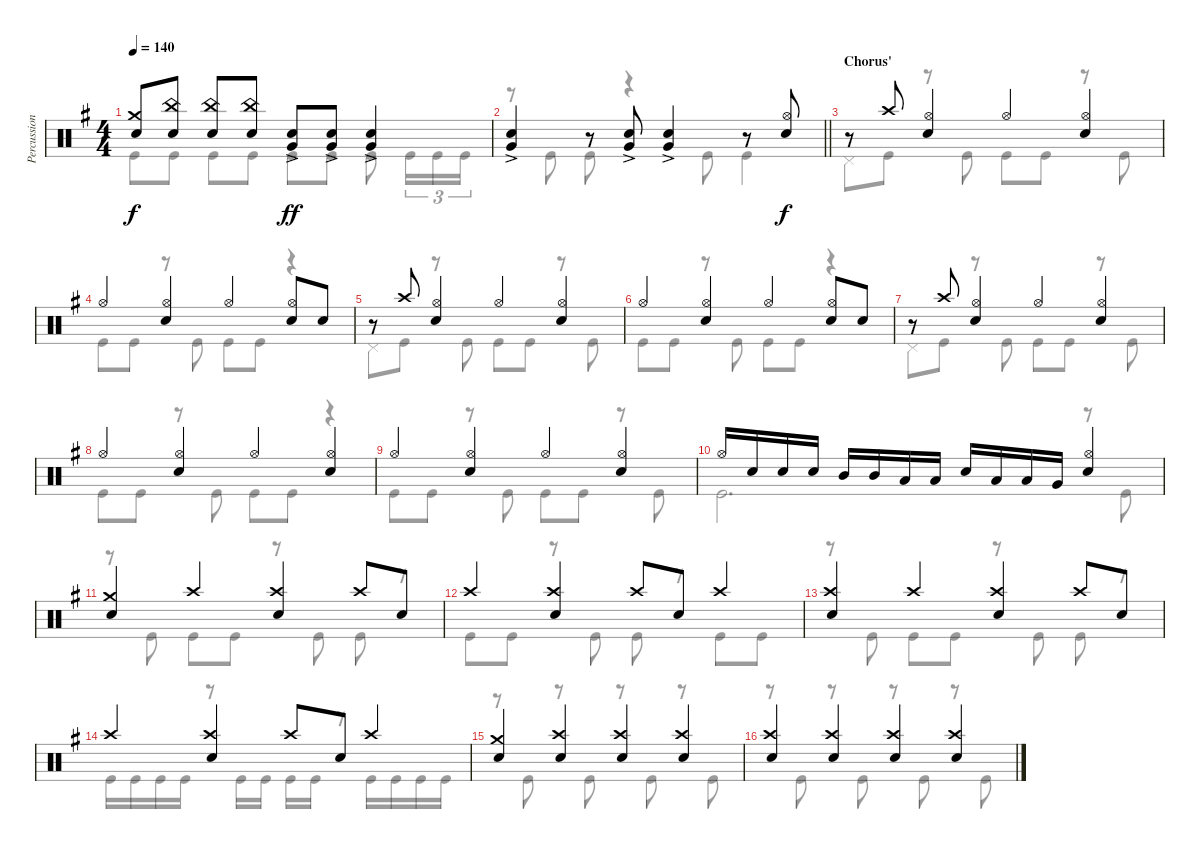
\track ("Percussion" "Percussion") {instrument percussion}
\staff {score}
\articulation defaults
\voice
\ts (4 4)
\tempo 140
\clef neutral
\ks eminor
("Crash medium (hit)" "Electric Snare (hit)").8{dy f} ("China (hit)" "Electric Snare (hit)").8 ("China (hit)" "Electric Snare (hit)").8 ("China (hit)" "Electric Snare (hit)").8 ("Very Low Tom (hit)"{ac} "Electric Snare (hit)"{ac}).8{dy ff} ("Very Low Tom (hit)"{ac} "Electric Snare (hit)"{ac}).8 ("Very Low Tom (hit)"{ac} "Electric Snare (hit)"{ac}).4 |
\barLineRight lightlight
("Very Low Tom (hit)"{ac} "Electric Snare (hit)"{ac}).4 r.8 ("Very Low Tom (hit)"{ac} "Electric Snare (hit)"{ac}).8 ("Very Low Tom (hit)"{ac} "Electric Snare (hit)"{ac}).4 r.8 ("Hi-Hat (open)" "Electric Snare (hit)").8{dy f} |
\section ("" "Chorus'")
r.8 "Crash high (hit)".8 ("Hi-Hat (open)" "Electric Snare (hit)").4 "Hi-Hat (open)".4 ("Hi-Hat (open)" "Electric Snare (hit)").4 |
"Hi-Hat (open)".4 ("Hi-Hat (open)" "Electric Snare (hit)").4 "Hi-Hat (open)".4 ("Hi-Hat (open)" "Electric Snare (hit)").8 "Electric Snare (hit)".8 |
r.8 "Crash high (hit)".8 ("Hi-Hat (open)" "Electric Snare (hit)").4 "Hi-Hat (open)".4 ("Hi-Hat (open)" "Electric Snare (hit)").4 |
"Hi-Hat (open)".4 ("Hi-Hat (open)" "Electric Snare (hit)").4 "Hi-Hat (open)".4 ("Hi-Hat (open)" "Electric Snare (hit)").8 "Electric Snare (hit)".8 |
r.8 "Crash high (hit)".8 ("Hi-Hat (open)" "Electric Snare (hit)").4 "Hi-Hat (open)".4 ("Hi-Hat (open)" "Electric Snare (hit)").4 |
"Hi-Hat (open)".4 ("Hi-Hat (open)" "Electric Snare (hit)").4 "Hi-Hat (open)".4 ("Hi-Hat (open)" "Electric Snare (hit)").4 |
"Hi-Hat (open)".4 ("Hi-Hat (open)" "Electric Snare (hit)").4 "Hi-Hat (open)".4 ("Hi-Hat (open)" "Electric Snare (hit)").4 |
"Hi-Hat (open)".16 "Electric Snare (hit)".16 "Electric Snare (hit)".16 "Electric Snare (hit)".16 "Mid Tom (hit)".16 "Mid Tom (hit)".16 "Low Tom (hit)".16 "Low Tom (hit)".16 "Electric Snare (hit)".16 "Low Tom (hit)".16 "Low Tom (hit)".16 "Very Low Tom (hit)".16 ("Hi-Hat (open)" "Electric Snare (hit)").4 |
("Crash medium (hit)" "Electric Snare (hit)").4 "Crash high (hit)".4 ("Crash high (hit)" "Electric Snare (hit)").4 "Crash high (hit)".8 "Electric Snare (hit)".8 |
"Crash high (hit)".4 ("Crash high (hit)" "Electric Snare (hit)").4 "Crash high (hit)".8 "Electric Snare (hit)".8 "Crash high (hit)".4 |
("Crash high (hit)" "Electric Snare (hit)").4 "Crash high (hit)".4 ("Crash high (hit)" "Electric Snare (hit)").4 "Crash high (hit)".8 "Electric Snare (hit)".8 |
"Crash high (hit)".4 ("Crash high (hit)" "Electric Snare (hit)").4 "Crash high (hit)".8 "Electric Snare (hit)".8 "Crash high (hit)".4 |
("Crash medium (hit)" "Electric Snare (hit)").4 ("Crash high (hit)" "Electric Snare (hit)").4 ("Crash high (hit)" "Electric Snare (hit)").4 ("Crash high (hit)" "Electric Snare (hit)").4 |
("Crash high (hit)" "Electric Snare (hit)").4 ("Crash high (hit)" "Electric Snare (hit)").4 ("Crash high (hit)" "Electric Snare (hit)").4 ("Crash high (hit)" "Electric Snare (hit)").4
\voice
\clef neutral
\ottava regular
\simile none
\ks eminor "Kick (hit)".8{dy f} "Kick (hit)".8 "Kick (hit)".8 "Kick (hit)".8 "Kick (hit)".8 "Kick (hit)".8 "Kick (hit)".8 "Kick (hit)".16{tu (3 2)} "Kick (hit)".16{tu (3 2)} "Kick (hit)".16{tu (3 2)}
|
\barLineRight lightlight
r.8 "Kick (hit)".8 "Kick (hit)".8 r.4 "Kick (hit)".8 "Kick (hit)".4 |
"Pedal Hi-Hat (hit)".8 "Kick (hit)".8 r.8 "Kick (hit)".8 "Kick (hit)".8 "Kick (hit)".8 r.8 "Kick (hit)".8 |
"Kick (hit)".8 "Kick (hit)".8 r.8 "Kick (hit)".8 "Kick (hit)".8 "Kick (hit)".8 r.4 |
"Pedal Hi-Hat (hit)".8 "Kick (hit)".8 r.8 "Kick (hit)".8 "Kick (hit)".8 "Kick (hit)".8 r.8 "Kick (hit)".8 |
"Kick (hit)".8 "Kick (hit)".8 r.8 "Kick (hit)".8 "Kick (hit)".8 "Kick (hit)".8 r.4 |
"Pedal Hi-Hat (hit)".8 "Kick (hit)".8 r.8 "Kick (hit)".8 "Kick (hit)".8 "Kick (hit)".8 r.8 "Kick (hit)".8 |
"Kick (hit)".8 "Kick (hit)".8 r.8 "Kick (hit)".8 "Kick (hit)".8 "Kick (hit)".8 r.4 |
"Kick (hit)".8 "Kick (hit)".8 r.8 "Kick (hit)".8 "Kick (hit)".8 "Kick (hit)".8 r.8 "Kick (hit)".8 |
"Kick (hit)".2{d} r.8 "Kick (hit)".8 |
r.8 "Kick (hit)".8 "Kick (hit)".8 "Kick (hit)".8 r.8 "Kick (hit)".8 "Kick (hit)".8 r.8 |
"Kick (hit)".8 "Kick (hit)".8 r.8 "Kick (hit)".8 "Kick (hit)".8 r.8 "Kick (hit)".8 "Kick (hit)".8 |
r.8 "Kick (hit)".8 "Kick (hit)".8 "Kick (hit)".8 r.8 "Kick (hit)".8 "Kick (hit)".8 r.8 |
"Kick (hit)".16 "Kick (hit)".16 "Kick (hit)".16 "Kick (hit)".16 r.8 "Kick (hit)".16 "Kick (hit)".16 "Kick (hit)".16 "Kick (hit)".16 r.8 "Kick (hit)".16 "Kick (hit)".16 "Kick (hit)".16 "Kick (hit)".16 |
r.8 "Kick (hit)".8 r.8 "Kick (hit)".8 r.8 "Kick (hit)".8 r.8 "Kick (hit)".8 |
r.8 "Kick (hit)".8 r.8 "Kick (hit)".8 r.8 "Kick (hit)".8 r.8 "Kick (hit)".8
